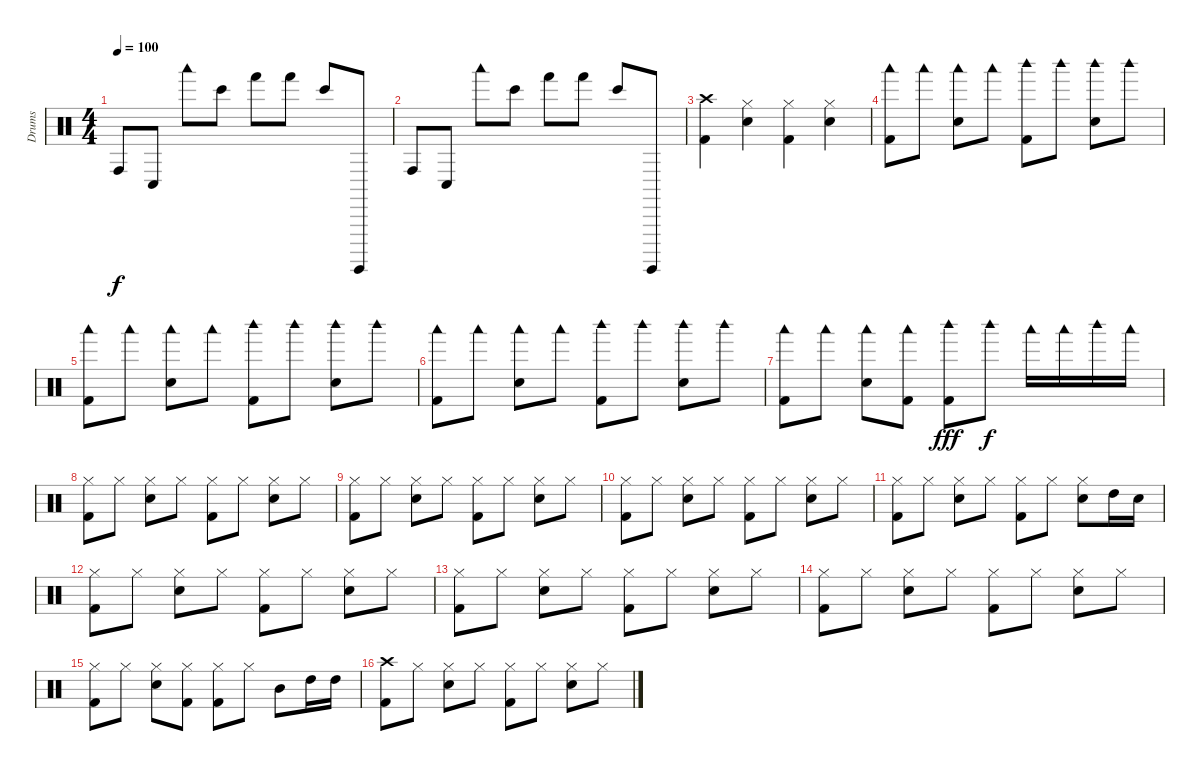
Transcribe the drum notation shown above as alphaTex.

\track ("Drums" "Drums") {instrument percussion}
\staff {score}
\articulation defaults
\ts (4 4)
\tempo 100
\clef neutral
\ks c "Conga high (hit)".8{dy f} "Conga low (hit)".8 "Woodblock low (hit)".8 "Bongo High (hit)".8 "Hand (hit)".8 "Hand (hit)".8 "Bongo High (hit)".8 "Surdo (hit)".8
|
"Conga high (hit)".8 "Conga low (hit)".8 "Woodblock low (hit)".8 "Bongo High (hit)".8 "Hand (hit)".8 "Hand (hit)".8 "Bongo High (hit)".8 "Surdo (hit)".8 |
("Kick (hit) 2" "Crash high (hit)").4 ("Snare (hit) 2" "Hi-Hat (closed)").4 ("Kick (hit) 2" "Hi-Hat (closed)").4 ("Snare (hit) 2" "Hi-Hat (closed)").4 |
("Kick (hit) 2" "Woodblock low (hit)").8 "Woodblock low (hit)".8 ("Snare (hit) 2" "Woodblock low (hit)").8 "Woodblock low (hit)".8 ("Kick (hit) 2" "Woodblock high (hit)").8 "Woodblock high (hit)".8 ("Snare (hit) 2" "Woodblock high (hit)").8 "Woodblock high (hit)".8 |
("Kick (hit) 2" "Woodblock low (hit)").8 "Woodblock low (hit)".8 ("Snare (hit) 2" "Woodblock low (hit)").8 "Woodblock low (hit)".8 ("Kick (hit) 2" "Woodblock high (hit)").8 "Woodblock high (hit)".8 ("Snare (hit) 2" "Woodblock high (hit)").8 "Woodblock high (hit)".8 |
("Kick (hit) 2" "Woodblock low (hit)").8 "Woodblock low (hit)".8 ("Snare (hit) 2" "Woodblock low (hit)").8 "Woodblock low (hit)".8 ("Kick (hit) 2" "Woodblock high (hit)").8 "Woodblock high (hit)".8 ("Snare (hit) 2" "Woodblock high (hit)").8 "Woodblock high (hit)".8 |
("Kick (hit) 2" "Woodblock low (hit)").8 "Woodblock low (hit)".8 ("Snare (hit) 2" "Woodblock low (hit)").8 ("Kick (hit) 2" "Woodblock low (hit)").8 ("Kick (hit) 2" "Woodblock high (hit)").8{dy fff} "Woodblock high (hit)".8{dy f} "Woodblock low (hit)".16 "Woodblock low (hit)".16 "Woodblock high (hit)".16 "Woodblock low (hit)".16 |
("Kick (hit) 2" "Hi-Hat (closed)").8 "Hi-Hat (closed)".8 ("Snare (hit) 2" "Hi-Hat (closed)").8 "Hi-Hat (closed)".8 ("Kick (hit) 2" "Hi-Hat (closed)").8 "Hi-Hat (closed)".8 ("Snare (hit) 2" "Hi-Hat (closed)").8 "Hi-Hat (closed)".8 |
("Kick (hit) 2" "Hi-Hat (closed)").8 "Hi-Hat (closed)".8 ("Snare (hit) 2" "Hi-Hat (closed)").8 "Hi-Hat (closed)".8 ("Kick (hit) 2" "Hi-Hat (closed)").8 "Hi-Hat (closed)".8 ("Snare (hit) 2" "Hi-Hat (closed)").8 "Hi-Hat (closed)".8 |
("Kick (hit) 2" "Hi-Hat (closed)").8 "Hi-Hat (closed)".8 ("Snare (hit) 2" "Hi-Hat (closed)").8 "Hi-Hat (closed)".8 ("Kick (hit) 2" "Hi-Hat (closed)").8 "Hi-Hat (closed)".8 ("Snare (hit) 2" "Hi-Hat (closed)").8 "Hi-Hat (closed)".8 |
("Kick (hit) 2" "Hi-Hat (closed)").8 "Hi-Hat (closed)".8 ("Snare (hit) 2" "Hi-Hat (closed)").8 "Hi-Hat (closed)".8 ("Kick (hit) 2" "Hi-Hat (closed)").8 "Hi-Hat (closed)".8 ("Snare (hit) 2" "Hi-Hat (closed)").8 "High Tom (hit)".16 "Snare (hit) 2".16 |
("Kick (hit) 2" "Hi-Hat (closed)").8 "Hi-Hat (closed)".8 ("Snare (hit) 2" "Hi-Hat (closed)").8 "Hi-Hat (closed)".8 ("Kick (hit) 2" "Hi-Hat (closed)").8 "Hi-Hat (closed)".8 ("Snare (hit) 2" "Hi-Hat (closed)").8 "Hi-Hat (closed)".8 |
("Kick (hit) 2" "Hi-Hat (closed)").8 "Hi-Hat (closed)".8 ("Snare (hit) 2" "Hi-Hat (closed)").8 "Hi-Hat (closed)".8 ("Kick (hit) 2" "Hi-Hat (closed)").8 "Hi-Hat (closed)".8 ("Snare (hit) 2" "Hi-Hat (closed)").8 "Hi-Hat (closed)".8 |
("Kick (hit) 2" "Hi-Hat (closed)").8 "Hi-Hat (closed)".8 ("Snare (hit) 2" "Hi-Hat (closed)").8 "Hi-Hat (closed)".8 ("Kick (hit) 2" "Hi-Hat (closed)").8 "Hi-Hat (closed)".8 ("Snare (hit) 2" "Hi-Hat (closed)").8 "Hi-Hat (closed)".8 |
("Kick (hit) 2" "Hi-Hat (closed)").8 "Hi-Hat (closed)".8 ("Snare (hit) 2" "Hi-Hat (closed)").8 ("Kick (hit) 2" "Hi-Hat (closed)").8 ("Kick (hit) 2" "Hi-Hat (closed)").8 "Hi-Hat (closed)".8 "Mid Tom (hit)".8 "High Tom (hit)".16 "High Tom (hit)".16 |
("Kick (hit) 2" "Crash high (hit)").8 "Hi-Hat (closed)".8 ("Snare (hit) 2" "Hi-Hat (closed)").8 "Hi-Hat (closed)".8 ("Kick (hit) 2" "Hi-Hat (closed)").8 "Hi-Hat (closed)".8 ("Snare (hit) 2" "Hi-Hat (closed)").8 "Hi-Hat (closed)".8
